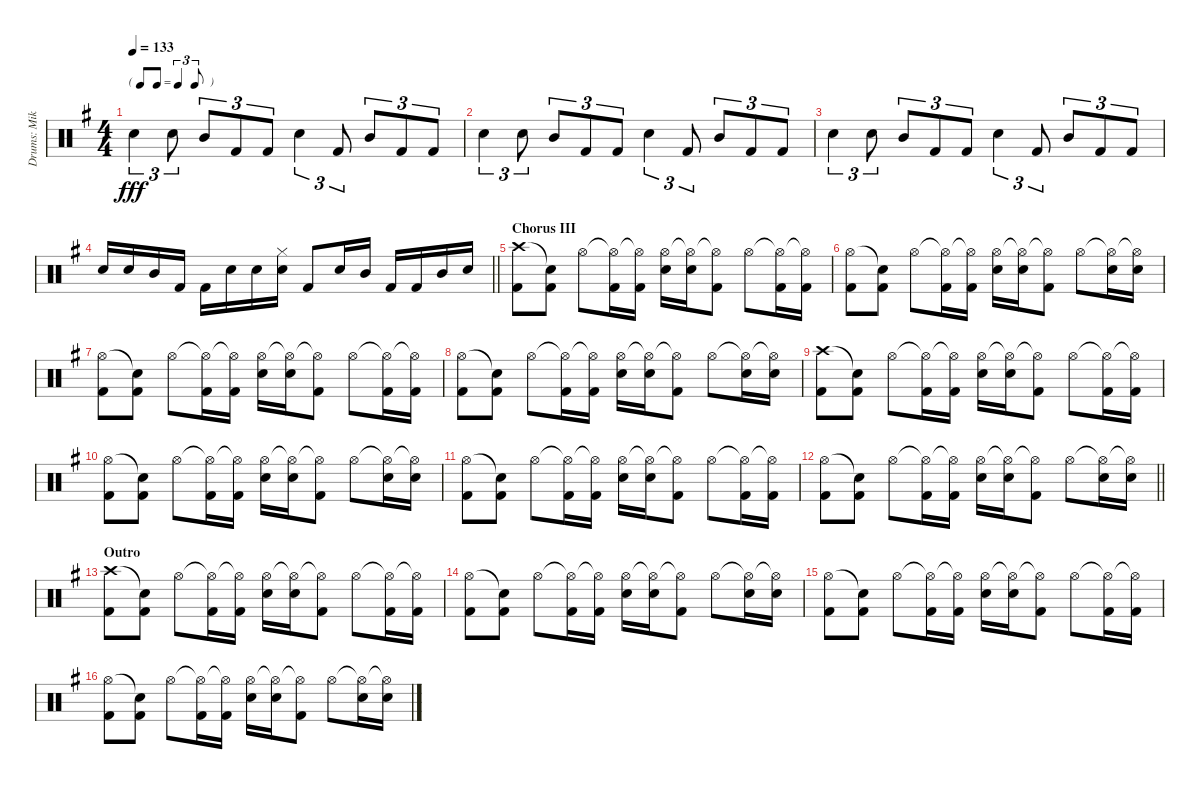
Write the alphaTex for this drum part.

\track ("Drums: Mike" "Drums: Mik") {instrument percussion}
\staff {score}
\articulation defaults
\ts (4 4)
\tf triplet8th
\tempo 133
\clef neutral
\ks g "Electric Snare (hit)".4{tu (3 2) dy fff} "Electric Snare (hit)".8{tu (3 2)} "Mid Tom (hit)".8{tu (3 2)} "Kick (hit) 2".8{tu (3 2)} "Kick (hit) 2".8{tu (3 2)} "Electric Snare (hit)".4{tu (3 2)} "Kick (hit) 2".8{tu (3 2)} "Mid Tom (hit)".8{tu (3 2)} "Kick (hit) 2".8{tu (3 2)} "Kick (hit) 2".8{tu (3 2)}
|
"Electric Snare (hit)".4{tu (3 2)} "Electric Snare (hit)".8{tu (3 2)} "Mid Tom (hit)".8{tu (3 2)} "Kick (hit) 2".8{tu (3 2)} "Kick (hit) 2".8{tu (3 2)} "Electric Snare (hit)".4{tu (3 2)} "Kick (hit) 2".8{tu (3 2)} "Mid Tom (hit)".8{tu (3 2)} "Kick (hit) 2".8{tu (3 2)} "Kick (hit) 2".8{tu (3 2)} |
"Electric Snare (hit)".4{tu (3 2)} "Electric Snare (hit)".8{tu (3 2)} "Mid Tom (hit)".8{tu (3 2)} "Kick (hit) 2".8{tu (3 2)} "Kick (hit) 2".8{tu (3 2)} "Electric Snare (hit)".4{tu (3 2)} "Kick (hit) 2".8{tu (3 2)} "Mid Tom (hit)".8{tu (3 2)} "Kick (hit) 2".8{tu (3 2)} "Kick (hit) 2".8{tu (3 2)} |
\barLineRight lightlight "Electric Snare (hit)".16 "Electric Snare (hit)".16 "Mid Tom (hit)".16 "Kick (hit) 2".16 "Kick (hit) 2".16 "Electric Snare (hit)".16 "Electric Snare (hit)".16
("Hi-Hat (closed)" "Electric Snare (hit)").16 "Kick (hit) 2".8 "Electric Snare (hit)".16 "Mid Tom (hit)".16 "Kick (hit) 2".16 "Kick (hit) 2".16 "Mid Tom (hit)".16 "Electric Snare (hit)".16 |
\section ("" "Chorus III")
("Crash high (hit)" "Kick (hit) 2").8 ("Snare (hit)"{t} "Kick (hit) 2").8 "Hi-Hat (open)".8 ("Hi-Hat (open)"{t} "Kick (hit) 2").16 ("Hi-Hat (open)"{t} "Kick (hit) 2").16 ("Hi-Hat (open)" "Electric Snare (hit)").16 ("Hi-Hat (open)"{t} "Electric Snare (hit)").16 ("Hi-Hat (open)"{t} "Kick (hit) 2").8 "Hi-Hat (open)".8 ("Hi-Hat (open)"{t} "Kick (hit) 2").16 ("Hi-Hat (open)"{t} "Kick (hit) 2").16 |
("Hi-Hat (open)" "Kick (hit) 2").8 ("Snare (hit)"{t} "Kick (hit) 2").8 "Hi-Hat (open)".8 ("Hi-Hat (open)"{t} "Kick (hit) 2").16 ("Hi-Hat (open)"{t} "Kick (hit) 2").16 ("Hi-Hat (open)" "Electric Snare (hit)").16 ("Hi-Hat (open)"{t} "Electric Snare (hit)").16 ("Hi-Hat (open)"{t} "Kick (hit) 2").8 "Hi-Hat (open)".8 ("Hi-Hat (open)"{t} "Electric Snare (hit)").16 ("Hi-Hat (open)"{t} "Electric Snare (hit)").16 |
("Hi-Hat (open)" "Kick (hit) 2").8 ("Snare (hit)"{t} "Kick (hit) 2").8 "Hi-Hat (open)".8 ("Hi-Hat (open)"{t} "Kick (hit) 2").16 ("Hi-Hat (open)"{t} "Kick (hit) 2").16 ("Hi-Hat (open)" "Electric Snare (hit)").16 ("Hi-Hat (open)"{t} "Electric Snare (hit)").16 ("Hi-Hat (open)"{t} "Kick (hit) 2").8 "Hi-Hat (open)".8 ("Hi-Hat (open)"{t} "Kick (hit) 2").16 ("Hi-Hat (open)"{t} "Kick (hit) 2").16 |
("Hi-Hat (open)" "Kick (hit) 2").8 ("Snare (hit)"{t} "Kick (hit) 2").8 "Hi-Hat (open)".8 ("Hi-Hat (open)"{t} "Kick (hit) 2").16 ("Hi-Hat (open)"{t} "Kick (hit) 2").16 ("Hi-Hat (open)" "Electric Snare (hit)").16 ("Hi-Hat (open)"{t} "Electric Snare (hit)").16 ("Hi-Hat (open)"{t} "Kick (hit) 2").8 "Hi-Hat (open)".8 ("Hi-Hat (open)"{t} "Electric Snare (hit)").16 ("Hi-Hat (open)"{t} "Electric Snare (hit)").16 |
("Crash high (hit)" "Kick (hit) 2").8 ("Snare (hit)"{t} "Kick (hit) 2").8 "Hi-Hat (open)".8 ("Hi-Hat (open)"{t} "Kick (hit) 2").16 ("Hi-Hat (open)"{t} "Kick (hit) 2").16 ("Hi-Hat (open)" "Electric Snare (hit)").16 ("Hi-Hat (open)"{t} "Electric Snare (hit)").16 ("Hi-Hat (open)"{t} "Kick (hit) 2").8 "Hi-Hat (open)".8 ("Hi-Hat (open)"{t} "Kick (hit) 2").16 ("Hi-Hat (open)"{t} "Kick (hit) 2").16 |
("Hi-Hat (open)" "Kick (hit) 2").8 ("Snare (hit)"{t} "Kick (hit) 2").8 "Hi-Hat (open)".8 ("Hi-Hat (open)"{t} "Kick (hit) 2").16 ("Hi-Hat (open)"{t} "Kick (hit) 2").16 ("Hi-Hat (open)" "Electric Snare (hit)").16 ("Hi-Hat (open)"{t} "Electric Snare (hit)").16 ("Hi-Hat (open)"{t} "Kick (hit) 2").8 "Hi-Hat (open)".8 ("Hi-Hat (open)"{t} "Electric Snare (hit)").16 ("Hi-Hat (open)"{t} "Electric Snare (hit)").16 |
("Hi-Hat (open)" "Kick (hit) 2").8 ("Snare (hit)"{t} "Kick (hit) 2").8 "Hi-Hat (open)".8 ("Hi-Hat (open)"{t} "Kick (hit) 2").16 ("Hi-Hat (open)"{t} "Kick (hit) 2").16 ("Hi-Hat (open)" "Electric Snare (hit)").16 ("Hi-Hat (open)"{t} "Electric Snare (hit)").16 ("Hi-Hat (open)"{t} "Kick (hit) 2").8 "Hi-Hat (open)".8 ("Hi-Hat (open)"{t} "Kick (hit) 2").16 ("Hi-Hat (open)"{t} "Kick (hit) 2").16 |
\barLineRight lightlight
("Hi-Hat (open)" "Kick (hit) 2").8 ("Snare (hit)"{t} "Kick (hit) 2").8 "Hi-Hat (open)".8 ("Hi-Hat (open)"{t} "Kick (hit) 2").16 ("Hi-Hat (open)"{t} "Kick (hit) 2").16 ("Hi-Hat (open)" "Electric Snare (hit)").16 ("Hi-Hat (open)"{t} "Electric Snare (hit)").16 ("Hi-Hat (open)"{t} "Kick (hit) 2").8 "Hi-Hat (open)".8 ("Hi-Hat (open)"{t} "Electric Snare (hit)").16 ("Hi-Hat (open)"{t} "Electric Snare (hit)").16 |
\section ("" "Outro")
("Crash high (hit)" "Kick (hit) 2").8 ("Snare (hit)"{t} "Kick (hit) 2").8 "Hi-Hat (open)".8 ("Hi-Hat (open)"{t} "Kick (hit) 2").16 ("Hi-Hat (open)"{t} "Kick (hit) 2").16 ("Hi-Hat (open)" "Electric Snare (hit)").16 ("Hi-Hat (open)"{t} "Electric Snare (hit)").16 ("Hi-Hat (open)"{t} "Kick (hit) 2").8 "Hi-Hat (open)".8 ("Hi-Hat (open)"{t} "Kick (hit) 2").16 ("Hi-Hat (open)"{t} "Kick (hit) 2").16 |
("Hi-Hat (open)" "Kick (hit) 2").8 ("Snare (hit)"{t} "Kick (hit) 2").8 "Hi-Hat (open)".8 ("Hi-Hat (open)"{t} "Kick (hit) 2").16 ("Hi-Hat (open)"{t} "Kick (hit) 2").16 ("Hi-Hat (open)" "Electric Snare (hit)").16 ("Hi-Hat (open)"{t} "Electric Snare (hit)").16 ("Hi-Hat (open)"{t} "Kick (hit) 2").8 "Hi-Hat (open)".8 ("Hi-Hat (open)"{t} "Electric Snare (hit)").16 ("Hi-Hat (open)"{t} "Electric Snare (hit)").16 |
("Hi-Hat (open)" "Kick (hit) 2").8 ("Snare (hit)"{t} "Kick (hit) 2").8 "Hi-Hat (open)".8 ("Hi-Hat (open)"{t} "Kick (hit) 2").16 ("Hi-Hat (open)"{t} "Kick (hit) 2").16 ("Hi-Hat (open)" "Electric Snare (hit)").16 ("Hi-Hat (open)"{t} "Electric Snare (hit)").16 ("Hi-Hat (open)"{t} "Kick (hit) 2").8 "Hi-Hat (open)".8 ("Hi-Hat (open)"{t} "Kick (hit) 2").16 ("Hi-Hat (open)"{t} "Kick (hit) 2").16 |
("Hi-Hat (open)" "Kick (hit) 2").8 ("Snare (hit)"{t} "Kick (hit) 2").8 "Hi-Hat (open)".8 ("Hi-Hat (open)"{t} "Kick (hit) 2").16 ("Hi-Hat (open)"{t} "Kick (hit) 2").16 ("Hi-Hat (open)" "Electric Snare (hit)").16 ("Hi-Hat (open)"{t} "Electric Snare (hit)").16 ("Hi-Hat (open)"{t} "Kick (hit) 2").8 "Hi-Hat (open)".8 ("Hi-Hat (open)"{t} "Electric Snare (hit)").16 ("Hi-Hat (open)"{t} "Electric Snare (hit)").16
